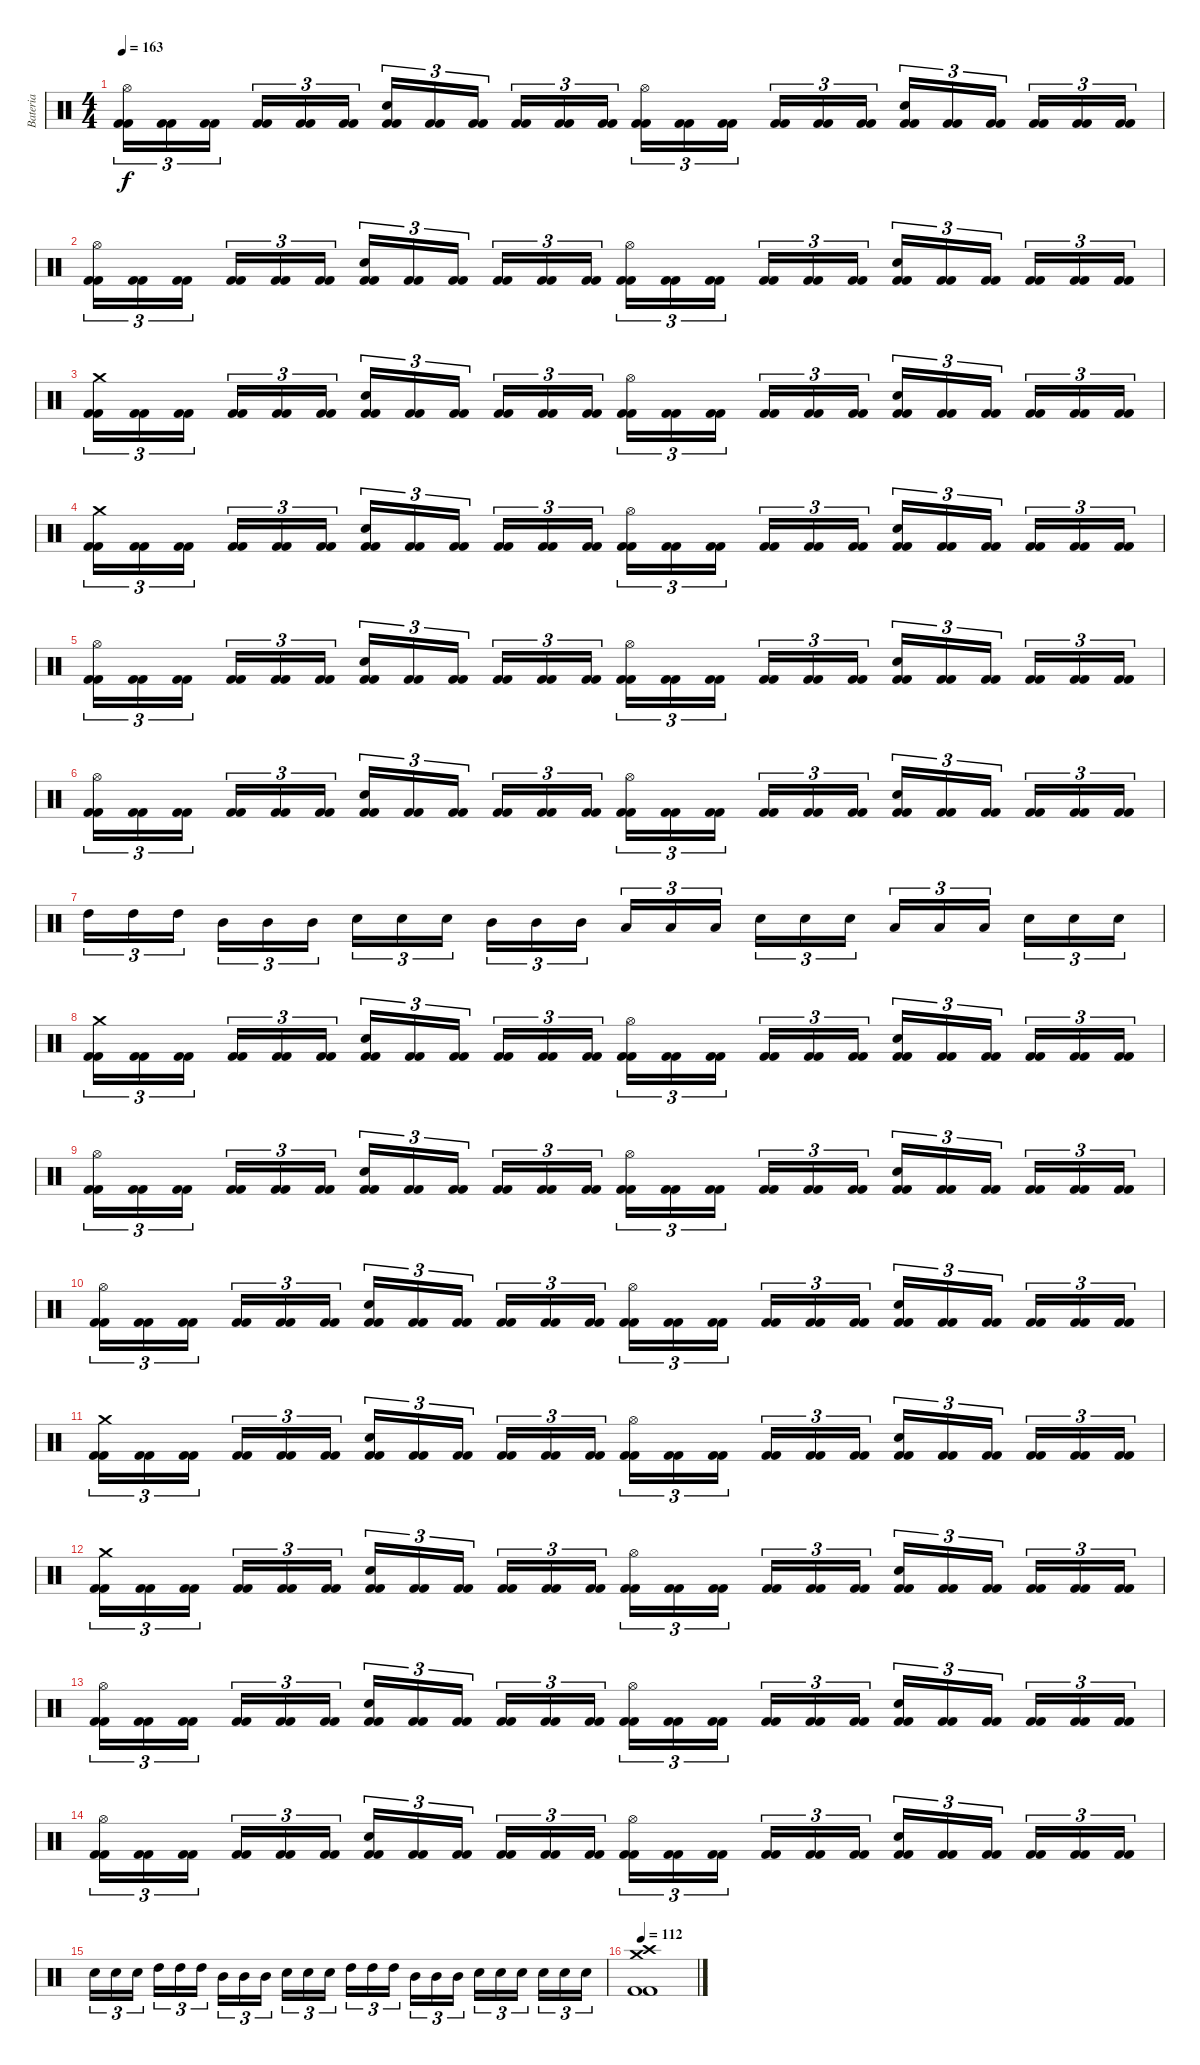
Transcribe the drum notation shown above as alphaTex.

\track ("Bateria" "Bateria") {instrument percussion}
\staff {score}
\articulation defaults
\ts (4 4)
\tempo 163
\clef neutral
\ks c
("Kick (hit) 2" "Kick (hit) 2" "Hi-Hat (open)").16{tu (3 2) dy f} ("Kick (hit) 2" "Kick (hit) 2").16{tu (3 2)} ("Kick (hit) 2" "Kick (hit) 2").16{tu (3 2)} ("Kick (hit) 2" "Kick (hit) 2").16{tu (3 2)} ("Kick (hit) 2" "Kick (hit) 2").16{tu (3 2)} ("Kick (hit) 2" "Kick (hit) 2").16{tu (3 2)} ("Kick (hit) 2" "Kick (hit) 2" "Snare (hit) 2").16{tu (3 2)} ("Kick (hit) 2" "Kick (hit) 2").16{tu (3 2)} ("Kick (hit) 2" "Kick (hit) 2").16{tu (3 2)} ("Kick (hit) 2" "Kick (hit) 2").16{tu (3 2)} ("Kick (hit) 2" "Kick (hit) 2").16{tu (3 2)} ("Kick (hit) 2" "Kick (hit) 2").16{tu (3 2)} ("Kick (hit) 2" "Kick (hit) 2" "Hi-Hat (open)").16{tu (3 2)} ("Kick (hit) 2" "Kick (hit) 2").16{tu (3 2)} ("Kick (hit) 2" "Kick (hit) 2").16{tu (3 2)} ("Kick (hit) 2" "Kick (hit) 2").16{tu (3 2)} ("Kick (hit) 2" "Kick (hit) 2").16{tu (3 2)} ("Kick (hit) 2" "Kick (hit) 2").16{tu (3 2)} ("Kick (hit) 2" "Kick (hit) 2" "Snare (hit) 2").16{tu (3 2)} ("Kick (hit) 2" "Kick (hit) 2").16{tu (3 2)} ("Kick (hit) 2" "Kick (hit) 2").16{tu (3 2)} ("Kick (hit) 2" "Kick (hit) 2").16{tu (3 2)} ("Kick (hit) 2" "Kick (hit) 2").16{tu (3 2)} ("Kick (hit) 2" "Kick (hit) 2").16{tu (3 2)} |
("Kick (hit) 2" "Kick (hit) 2" "Hi-Hat (open)").16{tu (3 2)} ("Kick (hit) 2" "Kick (hit) 2").16{tu (3 2)} ("Kick (hit) 2" "Kick (hit) 2").16{tu (3 2)} ("Kick (hit) 2" "Kick (hit) 2").16{tu (3 2)} ("Kick (hit) 2" "Kick (hit) 2").16{tu (3 2)} ("Kick (hit) 2" "Kick (hit) 2").16{tu (3 2)} ("Kick (hit) 2" "Kick (hit) 2" "Snare (hit) 2").16{tu (3 2)} ("Kick (hit) 2" "Kick (hit) 2").16{tu (3 2)} ("Kick (hit) 2" "Kick (hit) 2").16{tu (3 2)} ("Kick (hit) 2" "Kick (hit) 2").16{tu (3 2)} ("Kick (hit) 2" "Kick (hit) 2").16{tu (3 2)} ("Kick (hit) 2" "Kick (hit) 2").16{tu (3 2)} ("Kick (hit) 2" "Kick (hit) 2" "Hi-Hat (open)").16{tu (3 2)} ("Kick (hit) 2" "Kick (hit) 2").16{tu (3 2)} ("Kick (hit) 2" "Kick (hit) 2").16{tu (3 2)} ("Kick (hit) 2" "Kick (hit) 2").16{tu (3 2)} ("Kick (hit) 2" "Kick (hit) 2").16{tu (3 2)} ("Kick (hit) 2" "Kick (hit) 2").16{tu (3 2)} ("Kick (hit) 2" "Kick (hit) 2" "Snare (hit) 2").16{tu (3 2)} ("Kick (hit) 2" "Kick (hit) 2").16{tu (3 2)} ("Kick (hit) 2" "Kick (hit) 2").16{tu (3 2)} ("Kick (hit) 2" "Kick (hit) 2").16{tu (3 2)} ("Kick (hit) 2" "Kick (hit) 2").16{tu (3 2)} ("Kick (hit) 2" "Kick (hit) 2").16{tu (3 2)} |
("Kick (hit) 2" "Kick (hit) 2" "Crash medium (hit)").16{tu (3 2)} ("Kick (hit) 2" "Kick (hit) 2").16{tu (3 2)} ("Kick (hit) 2" "Kick (hit) 2").16{tu (3 2)} ("Kick (hit) 2" "Kick (hit) 2").16{tu (3 2)} ("Kick (hit) 2" "Kick (hit) 2").16{tu (3 2)} ("Kick (hit) 2" "Kick (hit) 2").16{tu (3 2)} ("Kick (hit) 2" "Kick (hit) 2" "Snare (hit) 2").16{tu (3 2)} ("Kick (hit) 2" "Kick (hit) 2").16{tu (3 2)} ("Kick (hit) 2" "Kick (hit) 2").16{tu (3 2)} ("Kick (hit) 2" "Kick (hit) 2").16{tu (3 2)} ("Kick (hit) 2" "Kick (hit) 2").16{tu (3 2)} ("Kick (hit) 2" "Kick (hit) 2").16{tu (3 2)} ("Kick (hit) 2" "Kick (hit) 2" "Hi-Hat (open)").16{tu (3 2)} ("Kick (hit) 2" "Kick (hit) 2").16{tu (3 2)} ("Kick (hit) 2" "Kick (hit) 2").16{tu (3 2)} ("Kick (hit) 2" "Kick (hit) 2").16{tu (3 2)} ("Kick (hit) 2" "Kick (hit) 2").16{tu (3 2)} ("Kick (hit) 2" "Kick (hit) 2").16{tu (3 2)} ("Kick (hit) 2" "Kick (hit) 2" "Snare (hit) 2").16{tu (3 2)} ("Kick (hit) 2" "Kick (hit) 2").16{tu (3 2)} ("Kick (hit) 2" "Kick (hit) 2").16{tu (3 2)} ("Kick (hit) 2" "Kick (hit) 2").16{tu (3 2)} ("Kick (hit) 2" "Kick (hit) 2").16{tu (3 2)} ("Kick (hit) 2" "Kick (hit) 2").16{tu (3 2)} |
("Kick (hit) 2" "Kick (hit) 2" "Crash medium (hit)").16{tu (3 2)} ("Kick (hit) 2" "Kick (hit) 2").16{tu (3 2)} ("Kick (hit) 2" "Kick (hit) 2").16{tu (3 2)} ("Kick (hit) 2" "Kick (hit) 2").16{tu (3 2)} ("Kick (hit) 2" "Kick (hit) 2").16{tu (3 2)} ("Kick (hit) 2" "Kick (hit) 2").16{tu (3 2)} ("Kick (hit) 2" "Kick (hit) 2" "Snare (hit) 2").16{tu (3 2)} ("Kick (hit) 2" "Kick (hit) 2").16{tu (3 2)} ("Kick (hit) 2" "Kick (hit) 2").16{tu (3 2)} ("Kick (hit) 2" "Kick (hit) 2").16{tu (3 2)} ("Kick (hit) 2" "Kick (hit) 2").16{tu (3 2)} ("Kick (hit) 2" "Kick (hit) 2").16{tu (3 2)} ("Kick (hit) 2" "Kick (hit) 2" "Hi-Hat (open)").16{tu (3 2)} ("Kick (hit) 2" "Kick (hit) 2").16{tu (3 2)} ("Kick (hit) 2" "Kick (hit) 2").16{tu (3 2)} ("Kick (hit) 2" "Kick (hit) 2").16{tu (3 2)} ("Kick (hit) 2" "Kick (hit) 2").16{tu (3 2)} ("Kick (hit) 2" "Kick (hit) 2").16{tu (3 2)} ("Kick (hit) 2" "Kick (hit) 2" "Snare (hit) 2").16{tu (3 2)} ("Kick (hit) 2" "Kick (hit) 2").16{tu (3 2)} ("Kick (hit) 2" "Kick (hit) 2").16{tu (3 2)} ("Kick (hit) 2" "Kick (hit) 2").16{tu (3 2)} ("Kick (hit) 2" "Kick (hit) 2").16{tu (3 2)} ("Kick (hit) 2" "Kick (hit) 2").16{tu (3 2)} |
("Kick (hit) 2" "Kick (hit) 2" "Hi-Hat (open)").16{tu (3 2)} ("Kick (hit) 2" "Kick (hit) 2").16{tu (3 2)} ("Kick (hit) 2" "Kick (hit) 2").16{tu (3 2)} ("Kick (hit) 2" "Kick (hit) 2").16{tu (3 2)} ("Kick (hit) 2" "Kick (hit) 2").16{tu (3 2)} ("Kick (hit) 2" "Kick (hit) 2").16{tu (3 2)} ("Kick (hit) 2" "Kick (hit) 2" "Snare (hit) 2").16{tu (3 2)} ("Kick (hit) 2" "Kick (hit) 2").16{tu (3 2)} ("Kick (hit) 2" "Kick (hit) 2").16{tu (3 2)} ("Kick (hit) 2" "Kick (hit) 2").16{tu (3 2)} ("Kick (hit) 2" "Kick (hit) 2").16{tu (3 2)} ("Kick (hit) 2" "Kick (hit) 2").16{tu (3 2)} ("Kick (hit) 2" "Kick (hit) 2" "Hi-Hat (open)").16{tu (3 2)} ("Kick (hit) 2" "Kick (hit) 2").16{tu (3 2)} ("Kick (hit) 2" "Kick (hit) 2").16{tu (3 2)} ("Kick (hit) 2" "Kick (hit) 2").16{tu (3 2)} ("Kick (hit) 2" "Kick (hit) 2").16{tu (3 2)} ("Kick (hit) 2" "Kick (hit) 2").16{tu (3 2)} ("Kick (hit) 2" "Kick (hit) 2" "Snare (hit) 2").16{tu (3 2)} ("Kick (hit) 2" "Kick (hit) 2").16{tu (3 2)} ("Kick (hit) 2" "Kick (hit) 2").16{tu (3 2)} ("Kick (hit) 2" "Kick (hit) 2").16{tu (3 2)} ("Kick (hit) 2" "Kick (hit) 2").16{tu (3 2)} ("Kick (hit) 2" "Kick (hit) 2").16{tu (3 2)} |
("Kick (hit) 2" "Kick (hit) 2" "Hi-Hat (open)").16{tu (3 2)} ("Kick (hit) 2" "Kick (hit) 2").16{tu (3 2)} ("Kick (hit) 2" "Kick (hit) 2").16{tu (3 2)} ("Kick (hit) 2" "Kick (hit) 2").16{tu (3 2)} ("Kick (hit) 2" "Kick (hit) 2").16{tu (3 2)} ("Kick (hit) 2" "Kick (hit) 2").16{tu (3 2)} ("Kick (hit) 2" "Kick (hit) 2" "Snare (hit) 2").16{tu (3 2)} ("Kick (hit) 2" "Kick (hit) 2").16{tu (3 2)} ("Kick (hit) 2" "Kick (hit) 2").16{tu (3 2)} ("Kick (hit) 2" "Kick (hit) 2").16{tu (3 2)} ("Kick (hit) 2" "Kick (hit) 2").16{tu (3 2)} ("Kick (hit) 2" "Kick (hit) 2").16{tu (3 2)} ("Kick (hit) 2" "Kick (hit) 2" "Hi-Hat (open)").16{tu (3 2)} ("Kick (hit) 2" "Kick (hit) 2").16{tu (3 2)} ("Kick (hit) 2" "Kick (hit) 2").16{tu (3 2)} ("Kick (hit) 2" "Kick (hit) 2").16{tu (3 2)} ("Kick (hit) 2" "Kick (hit) 2").16{tu (3 2)} ("Kick (hit) 2" "Kick (hit) 2").16{tu (3 2)} ("Kick (hit) 2" "Kick (hit) 2" "Snare (hit) 2").16{tu (3 2)} ("Kick (hit) 2" "Kick (hit) 2").16{tu (3 2)} ("Kick (hit) 2" "Kick (hit) 2").16{tu (3 2)} ("Kick (hit) 2" "Kick (hit) 2").16{tu (3 2)} ("Kick (hit) 2" "Kick (hit) 2").16{tu (3 2)} ("Kick (hit) 2" "Kick (hit) 2").16{tu (3 2)} |
"High Tom (hit)".16{tu (3 2)} "High Tom (hit)".16{tu (3 2)} "High Tom (hit)".16{tu (3 2)} "Mid Tom (hit)".16{tu (3 2)} "Mid Tom (hit)".16{tu (3 2)} "Mid Tom (hit)".16{tu (3 2)} "Snare (hit) 2".16{tu (3 2)} "Snare (hit) 2".16{tu (3 2)} "Snare (hit) 2".16{tu (3 2)} "Mid Tom (hit)".16{tu (3 2)} "Mid Tom (hit)".16{tu (3 2)} "Mid Tom (hit)".16{tu (3 2)} "Low Tom (hit)".16{tu (3 2)} "Low Tom (hit)".16{tu (3 2)} "Low Tom (hit)".16{tu (3 2)} "Snare (hit) 2".16{tu (3 2)} "Snare (hit) 2".16{tu (3 2)} "Snare (hit) 2".16{tu (3 2)} "Low Tom (hit)".16{tu (3 2)} "Low Tom (hit)".16{tu (3 2)} "Low Tom (hit)".16{tu (3 2)} "Snare (hit) 2".16{tu (3 2)} "Snare (hit) 2".16{tu (3 2)} "Snare (hit) 2".16{tu (3 2)} |
("Kick (hit) 2" "Kick (hit) 2" "Crash medium (hit)").16{tu (3 2)} ("Kick (hit) 2" "Kick (hit) 2").16{tu (3 2)} ("Kick (hit) 2" "Kick (hit) 2").16{tu (3 2)} ("Kick (hit) 2" "Kick (hit) 2").16{tu (3 2)} ("Kick (hit) 2" "Kick (hit) 2").16{tu (3 2)} ("Kick (hit) 2" "Kick (hit) 2").16{tu (3 2)} ("Kick (hit) 2" "Kick (hit) 2" "Snare (hit) 2").16{tu (3 2)} ("Kick (hit) 2" "Kick (hit) 2").16{tu (3 2)} ("Kick (hit) 2" "Kick (hit) 2").16{tu (3 2)} ("Kick (hit) 2" "Kick (hit) 2").16{tu (3 2)} ("Kick (hit) 2" "Kick (hit) 2").16{tu (3 2)} ("Kick (hit) 2" "Kick (hit) 2").16{tu (3 2)} ("Kick (hit) 2" "Kick (hit) 2" "Hi-Hat (open)").16{tu (3 2)} ("Kick (hit) 2" "Kick (hit) 2").16{tu (3 2)} ("Kick (hit) 2" "Kick (hit) 2").16{tu (3 2)} ("Kick (hit) 2" "Kick (hit) 2").16{tu (3 2)} ("Kick (hit) 2" "Kick (hit) 2").16{tu (3 2)} ("Kick (hit) 2" "Kick (hit) 2").16{tu (3 2)} ("Kick (hit) 2" "Kick (hit) 2" "Snare (hit) 2").16{tu (3 2)} ("Kick (hit) 2" "Kick (hit) 2").16{tu (3 2)} ("Kick (hit) 2" "Kick (hit) 2").16{tu (3 2)} ("Kick (hit) 2" "Kick (hit) 2").16{tu (3 2)} ("Kick (hit) 2" "Kick (hit) 2").16{tu (3 2)} ("Kick (hit) 2" "Kick (hit) 2").16{tu (3 2)} |
("Kick (hit) 2" "Kick (hit) 2" "Hi-Hat (open)").16{tu (3 2)} ("Kick (hit) 2" "Kick (hit) 2").16{tu (3 2)} ("Kick (hit) 2" "Kick (hit) 2").16{tu (3 2)} ("Kick (hit) 2" "Kick (hit) 2").16{tu (3 2)} ("Kick (hit) 2" "Kick (hit) 2").16{tu (3 2)} ("Kick (hit) 2" "Kick (hit) 2").16{tu (3 2)} ("Kick (hit) 2" "Kick (hit) 2" "Snare (hit) 2").16{tu (3 2)} ("Kick (hit) 2" "Kick (hit) 2").16{tu (3 2)} ("Kick (hit) 2" "Kick (hit) 2").16{tu (3 2)} ("Kick (hit) 2" "Kick (hit) 2").16{tu (3 2)} ("Kick (hit) 2" "Kick (hit) 2").16{tu (3 2)} ("Kick (hit) 2" "Kick (hit) 2").16{tu (3 2)} ("Kick (hit) 2" "Kick (hit) 2" "Hi-Hat (open)").16{tu (3 2)} ("Kick (hit) 2" "Kick (hit) 2").16{tu (3 2)} ("Kick (hit) 2" "Kick (hit) 2").16{tu (3 2)} ("Kick (hit) 2" "Kick (hit) 2").16{tu (3 2)} ("Kick (hit) 2" "Kick (hit) 2").16{tu (3 2)} ("Kick (hit) 2" "Kick (hit) 2").16{tu (3 2)} ("Kick (hit) 2" "Kick (hit) 2" "Snare (hit) 2").16{tu (3 2)} ("Kick (hit) 2" "Kick (hit) 2").16{tu (3 2)} ("Kick (hit) 2" "Kick (hit) 2").16{tu (3 2)} ("Kick (hit) 2" "Kick (hit) 2").16{tu (3 2)} ("Kick (hit) 2" "Kick (hit) 2").16{tu (3 2)} ("Kick (hit) 2" "Kick (hit) 2").16{tu (3 2)} |
("Kick (hit) 2" "Kick (hit) 2" "Hi-Hat (open)").16{tu (3 2)} ("Kick (hit) 2" "Kick (hit) 2").16{tu (3 2)} ("Kick (hit) 2" "Kick (hit) 2").16{tu (3 2)} ("Kick (hit) 2" "Kick (hit) 2").16{tu (3 2)} ("Kick (hit) 2" "Kick (hit) 2").16{tu (3 2)} ("Kick (hit) 2" "Kick (hit) 2").16{tu (3 2)} ("Kick (hit) 2" "Kick (hit) 2" "Snare (hit) 2").16{tu (3 2)} ("Kick (hit) 2" "Kick (hit) 2").16{tu (3 2)} ("Kick (hit) 2" "Kick (hit) 2").16{tu (3 2)} ("Kick (hit) 2" "Kick (hit) 2").16{tu (3 2)} ("Kick (hit) 2" "Kick (hit) 2").16{tu (3 2)} ("Kick (hit) 2" "Kick (hit) 2").16{tu (3 2)} ("Kick (hit) 2" "Kick (hit) 2" "Hi-Hat (open)").16{tu (3 2)} ("Kick (hit) 2" "Kick (hit) 2").16{tu (3 2)} ("Kick (hit) 2" "Kick (hit) 2").16{tu (3 2)} ("Kick (hit) 2" "Kick (hit) 2").16{tu (3 2)} ("Kick (hit) 2" "Kick (hit) 2").16{tu (3 2)} ("Kick (hit) 2" "Kick (hit) 2").16{tu (3 2)} ("Kick (hit) 2" "Kick (hit) 2" "Snare (hit) 2").16{tu (3 2)} ("Kick (hit) 2" "Kick (hit) 2").16{tu (3 2)} ("Kick (hit) 2" "Kick (hit) 2").16{tu (3 2)} ("Kick (hit) 2" "Kick (hit) 2").16{tu (3 2)} ("Kick (hit) 2" "Kick (hit) 2").16{tu (3 2)} ("Kick (hit) 2" "Kick (hit) 2").16{tu (3 2)} |
("Kick (hit) 2" "Kick (hit) 2" "Crash medium (hit)").16{tu (3 2)} ("Kick (hit) 2" "Kick (hit) 2").16{tu (3 2)} ("Kick (hit) 2" "Kick (hit) 2").16{tu (3 2)} ("Kick (hit) 2" "Kick (hit) 2").16{tu (3 2)} ("Kick (hit) 2" "Kick (hit) 2").16{tu (3 2)} ("Kick (hit) 2" "Kick (hit) 2").16{tu (3 2)} ("Kick (hit) 2" "Kick (hit) 2" "Snare (hit) 2").16{tu (3 2)} ("Kick (hit) 2" "Kick (hit) 2").16{tu (3 2)} ("Kick (hit) 2" "Kick (hit) 2").16{tu (3 2)} ("Kick (hit) 2" "Kick (hit) 2").16{tu (3 2)} ("Kick (hit) 2" "Kick (hit) 2").16{tu (3 2)} ("Kick (hit) 2" "Kick (hit) 2").16{tu (3 2)} ("Kick (hit) 2" "Kick (hit) 2" "Hi-Hat (open)").16{tu (3 2)} ("Kick (hit) 2" "Kick (hit) 2").16{tu (3 2)} ("Kick (hit) 2" "Kick (hit) 2").16{tu (3 2)} ("Kick (hit) 2" "Kick (hit) 2").16{tu (3 2)} ("Kick (hit) 2" "Kick (hit) 2").16{tu (3 2)} ("Kick (hit) 2" "Kick (hit) 2").16{tu (3 2)} ("Kick (hit) 2" "Kick (hit) 2" "Snare (hit) 2").16{tu (3 2)} ("Kick (hit) 2" "Kick (hit) 2").16{tu (3 2)} ("Kick (hit) 2" "Kick (hit) 2").16{tu (3 2)} ("Kick (hit) 2" "Kick (hit) 2").16{tu (3 2)} ("Kick (hit) 2" "Kick (hit) 2").16{tu (3 2)} ("Kick (hit) 2" "Kick (hit) 2").16{tu (3 2)} |
("Kick (hit) 2" "Kick (hit) 2" "Crash medium (hit)").16{tu (3 2)} ("Kick (hit) 2" "Kick (hit) 2").16{tu (3 2)} ("Kick (hit) 2" "Kick (hit) 2").16{tu (3 2)} ("Kick (hit) 2" "Kick (hit) 2").16{tu (3 2)} ("Kick (hit) 2" "Kick (hit) 2").16{tu (3 2)} ("Kick (hit) 2" "Kick (hit) 2").16{tu (3 2)} ("Kick (hit) 2" "Kick (hit) 2" "Snare (hit) 2").16{tu (3 2)} ("Kick (hit) 2" "Kick (hit) 2").16{tu (3 2)} ("Kick (hit) 2" "Kick (hit) 2").16{tu (3 2)} ("Kick (hit) 2" "Kick (hit) 2").16{tu (3 2)} ("Kick (hit) 2" "Kick (hit) 2").16{tu (3 2)} ("Kick (hit) 2" "Kick (hit) 2").16{tu (3 2)} ("Kick (hit) 2" "Kick (hit) 2" "Hi-Hat (open)").16{tu (3 2)} ("Kick (hit) 2" "Kick (hit) 2").16{tu (3 2)} ("Kick (hit) 2" "Kick (hit) 2").16{tu (3 2)} ("Kick (hit) 2" "Kick (hit) 2").16{tu (3 2)} ("Kick (hit) 2" "Kick (hit) 2").16{tu (3 2)} ("Kick (hit) 2" "Kick (hit) 2").16{tu (3 2)} ("Kick (hit) 2" "Kick (hit) 2" "Snare (hit) 2").16{tu (3 2)} ("Kick (hit) 2" "Kick (hit) 2").16{tu (3 2)} ("Kick (hit) 2" "Kick (hit) 2").16{tu (3 2)} ("Kick (hit) 2" "Kick (hit) 2").16{tu (3 2)} ("Kick (hit) 2" "Kick (hit) 2").16{tu (3 2)} ("Kick (hit) 2" "Kick (hit) 2").16{tu (3 2)} |
("Kick (hit) 2" "Kick (hit) 2" "Hi-Hat (open)").16{tu (3 2)} ("Kick (hit) 2" "Kick (hit) 2").16{tu (3 2)} ("Kick (hit) 2" "Kick (hit) 2").16{tu (3 2)} ("Kick (hit) 2" "Kick (hit) 2").16{tu (3 2)} ("Kick (hit) 2" "Kick (hit) 2").16{tu (3 2)} ("Kick (hit) 2" "Kick (hit) 2").16{tu (3 2)} ("Kick (hit) 2" "Kick (hit) 2" "Snare (hit) 2").16{tu (3 2)} ("Kick (hit) 2" "Kick (hit) 2").16{tu (3 2)} ("Kick (hit) 2" "Kick (hit) 2").16{tu (3 2)} ("Kick (hit) 2" "Kick (hit) 2").16{tu (3 2)} ("Kick (hit) 2" "Kick (hit) 2").16{tu (3 2)} ("Kick (hit) 2" "Kick (hit) 2").16{tu (3 2)} ("Kick (hit) 2" "Kick (hit) 2" "Hi-Hat (open)").16{tu (3 2)} ("Kick (hit) 2" "Kick (hit) 2").16{tu (3 2)} ("Kick (hit) 2" "Kick (hit) 2").16{tu (3 2)} ("Kick (hit) 2" "Kick (hit) 2").16{tu (3 2)} ("Kick (hit) 2" "Kick (hit) 2").16{tu (3 2)} ("Kick (hit) 2" "Kick (hit) 2").16{tu (3 2)} ("Kick (hit) 2" "Kick (hit) 2" "Snare (hit) 2").16{tu (3 2)} ("Kick (hit) 2" "Kick (hit) 2").16{tu (3 2)} ("Kick (hit) 2" "Kick (hit) 2").16{tu (3 2)} ("Kick (hit) 2" "Kick (hit) 2").16{tu (3 2)} ("Kick (hit) 2" "Kick (hit) 2").16{tu (3 2)} ("Kick (hit) 2" "Kick (hit) 2").16{tu (3 2)} |
("Kick (hit) 2" "Kick (hit) 2" "Hi-Hat (open)").16{tu (3 2)} ("Kick (hit) 2" "Kick (hit) 2").16{tu (3 2)} ("Kick (hit) 2" "Kick (hit) 2").16{tu (3 2)} ("Kick (hit) 2" "Kick (hit) 2").16{tu (3 2)} ("Kick (hit) 2" "Kick (hit) 2").16{tu (3 2)} ("Kick (hit) 2" "Kick (hit) 2").16{tu (3 2)} ("Kick (hit) 2" "Kick (hit) 2" "Snare (hit) 2").16{tu (3 2)} ("Kick (hit) 2" "Kick (hit) 2").16{tu (3 2)} ("Kick (hit) 2" "Kick (hit) 2").16{tu (3 2)} ("Kick (hit) 2" "Kick (hit) 2").16{tu (3 2)} ("Kick (hit) 2" "Kick (hit) 2").16{tu (3 2)} ("Kick (hit) 2" "Kick (hit) 2").16{tu (3 2)} ("Kick (hit) 2" "Kick (hit) 2" "Hi-Hat (open)").16{tu (3 2)} ("Kick (hit) 2" "Kick (hit) 2").16{tu (3 2)} ("Kick (hit) 2" "Kick (hit) 2").16{tu (3 2)} ("Kick (hit) 2" "Kick (hit) 2").16{tu (3 2)} ("Kick (hit) 2" "Kick (hit) 2").16{tu (3 2)} ("Kick (hit) 2" "Kick (hit) 2").16{tu (3 2)} ("Kick (hit) 2" "Kick (hit) 2" "Snare (hit) 2").16{tu (3 2)} ("Kick (hit) 2" "Kick (hit) 2").16{tu (3 2)} ("Kick (hit) 2" "Kick (hit) 2").16{tu (3 2)} ("Kick (hit) 2" "Kick (hit) 2").16{tu (3 2)} ("Kick (hit) 2" "Kick (hit) 2").16{tu (3 2)} ("Kick (hit) 2" "Kick (hit) 2").16{tu (3 2)} |
"Snare (hit) 2".16{tu (3 2)} "Snare (hit) 2".16{tu (3 2)} "Snare (hit) 2".16{tu (3 2)} "High Tom (hit)".16{tu (3 2)} "High Tom (hit)".16{tu (3 2)} "High Tom (hit)".16{tu (3 2)} "Mid Tom (hit)".16{tu (3 2)} "Mid Tom (hit)".16{tu (3 2)} "Mid Tom (hit)".16{tu (3 2)} "Snare (hit) 2".16{tu (3 2)} "Snare (hit) 2".16{tu (3 2)} "Snare (hit) 2".16{tu (3 2)} "High Tom (hit)".16{tu (3 2)} "High Tom (hit)".16{tu (3 2)} "High Tom (hit)".16{tu (3 2)} "Mid Tom (hit)".16{tu (3 2)} "Mid Tom (hit)".16{tu (3 2)} "Mid Tom (hit)".16{tu (3 2)} "Snare (hit) 2".16{tu (3 2)} "Snare (hit) 2".16{tu (3 2)} "Snare (hit) 2".16{tu (3 2)} "Snare (hit) 2".16{tu (3 2)} "Snare (hit) 2".16{tu (3 2)} "Snare (hit) 2".16{tu (3 2)} |
\tempo 112
("Kick (hit) 2" "Kick (hit) 2" "Crash high (hit)" "Crash medium (hit)").1
